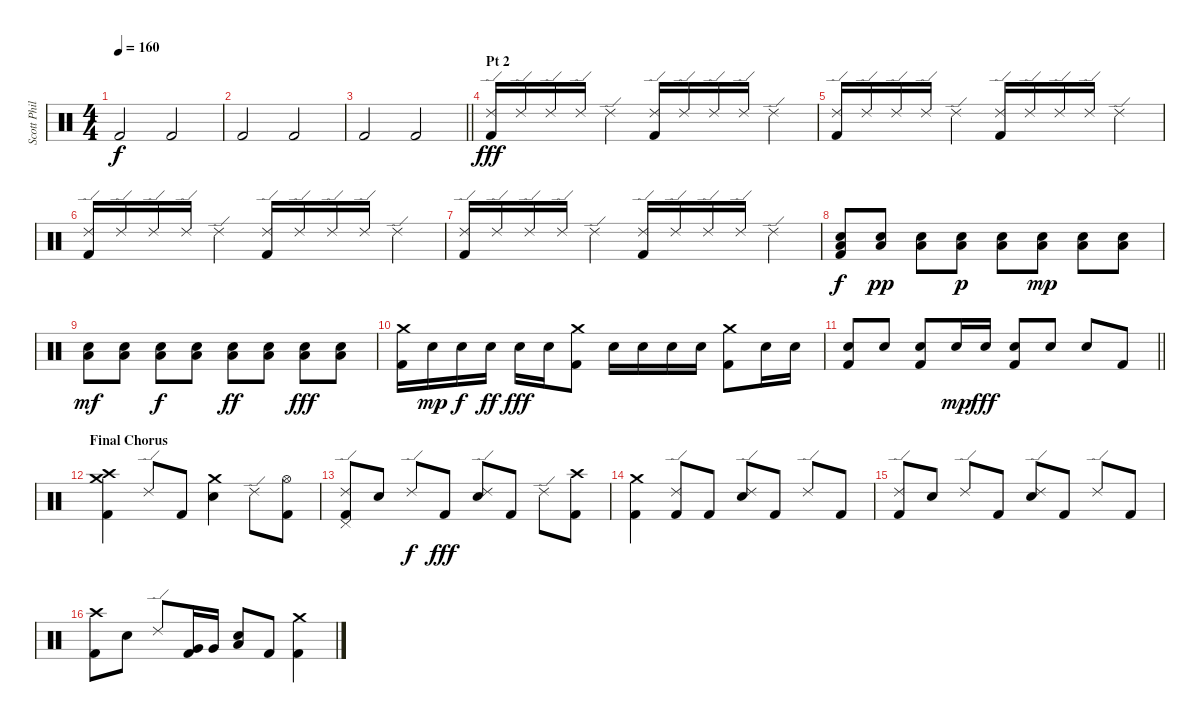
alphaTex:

\track ("Scott Phillips [Drums]" "Scott Phil") {instrument percussion}
\staff {score}
\articulation defaults
\ts (4 4)
\tempo 160
\clef neutral
\ks c "Kick (hit) 2".2{dy f} "Kick (hit) 2".2
|
"Kick (hit) 2".2 "Kick (hit) 2".2 |
\barLineRight lightlight "Kick (hit) 2".2 "Kick (hit) 2".2
|
\section ("" "Pt 2")
("Ride (edge) 2" "Kick (hit) 2").16{dy fff} "Ride (edge) 2".16 "Ride (edge) 2".16 "Ride (edge) 2".16 "Ride (edge) 2".4 ("Ride (edge) 2" "Kick (hit) 2").16 "Ride (edge) 2".16 "Ride (edge) 2".16 "Ride (edge) 2".16 "Ride (edge) 2".4 |
("Ride (edge) 2" "Kick (hit) 2").16 "Ride (edge) 2".16 "Ride (edge) 2".16 "Ride (edge) 2".16 "Ride (edge) 2".4 ("Ride (edge) 2" "Kick (hit) 2").16 "Ride (edge) 2".16 "Ride (edge) 2".16 "Ride (edge) 2".16 "Ride (edge) 2".4 |
("Ride (edge) 2" "Kick (hit) 2").16 "Ride (edge) 2".16 "Ride (edge) 2".16 "Ride (edge) 2".16 "Ride (edge) 2".4 ("Ride (edge) 2" "Kick (hit) 2").16 "Ride (edge) 2".16 "Ride (edge) 2".16 "Ride (edge) 2".16 "Ride (edge) 2".4 |
("Ride (edge) 2" "Kick (hit) 2").16 "Ride (edge) 2".16 "Ride (edge) 2".16 "Ride (edge) 2".16 "Ride (edge) 2".4 ("Ride (edge) 2" "Kick (hit) 2").16 "Ride (edge) 2".16 "Ride (edge) 2".16 "Ride (edge) 2".16 "Ride (edge) 2".4 |
("Low Floor Tom (hit)" "Electric Snare (hit)" "Kick (hit) 2").8{dy f} ("Low Floor Tom (hit)" "Electric Snare (hit)").8{dy pp} ("Low Floor Tom (hit)" "Electric Snare (hit)").8 ("Low Floor Tom (hit)" "Electric Snare (hit)").8{dy p} ("Low Floor Tom (hit)" "Electric Snare (hit)").8 ("Low Floor Tom (hit)" "Electric Snare (hit)").8{dy mp} ("Low Floor Tom (hit)" "Electric Snare (hit)").8 ("Low Floor Tom (hit)" "Electric Snare (hit)").8 |
("Low Floor Tom (hit)" "Electric Snare (hit)").8{dy mf} ("Low Floor Tom (hit)" "Electric Snare (hit)").8 ("Low Floor Tom (hit)" "Electric Snare (hit)").8{dy f} ("Low Floor Tom (hit)" "Electric Snare (hit)").8 ("Low Floor Tom (hit)" "Electric Snare (hit)").8{dy ff} ("Low Floor Tom (hit)" "Electric Snare (hit)").8 ("Low Floor Tom (hit)" "Electric Snare (hit)").8{dy fff} ("Low Floor Tom (hit)" "Electric Snare (hit)").8 |
("Crash medium (hit)" "Kick (hit) 2").16 "Electric Snare (hit)".16{dy mp} "Electric Snare (hit)".16{dy f} "Electric Snare (hit)".16{dy ff} "Electric Snare (hit)".16{dy fff} "Electric Snare (hit)".16 ("Crash medium (hit)" "Kick (hit) 2").8 "Electric Snare (hit)".16 "Electric Snare (hit)".16 "Electric Snare (hit)".16 "Electric Snare (hit)".16 ("Crash medium (hit)" "Kick (hit) 2").8 "Electric Snare (hit)".16 "Electric Snare (hit)".16 |
\barLineRight lightlight
("Electric Snare (hit)" "Kick (hit) 2").8 "Electric Snare (hit)".8 ("Electric Snare (hit)" "Kick (hit) 2").8 "Electric Snare (hit)".16{dy mp} "Electric Snare (hit)".16{dy fff} ("Electric Snare (hit)" "Kick (hit) 2").8 "Electric Snare (hit)".8 "Electric Snare (hit)".8 "Kick (hit) 2".8 |
\section ("" "Final Chorus")
("Crash high (hit)" "Crash medium (hit)" "Kick (hit) 2").4 "Ride (edge) 2".8 "Kick (hit) 2".8 ("Crash medium (hit)" "Electric Snare (hit)").4 "Ride (edge) 2".8 ("Hi-Hat (open)" "Kick (hit) 2").8 |
("Ride (edge) 2" "Pedal Hi-Hat (hit)" "Kick (hit) 2").8 "Electric Snare (hit)".8 "Ride (edge) 2".8{dy f} "Kick (hit) 2".8{dy fff} ("Ride (edge) 2" "Electric Snare (hit)").8 "Kick (hit) 2".8 "Ride (edge) 2".8 ("Crash high (hit)" "Kick (hit) 2").8 |
("Crash medium (hit)" "Kick (hit) 2").4 ("Ride (edge) 2" "Kick (hit) 2").8 "Kick (hit) 2".8 ("Ride (edge) 2" "Electric Snare (hit)").8 "Kick (hit) 2".8 "Ride (edge) 2".8 "Kick (hit) 2".8 |
("Ride (edge) 2" "Kick (hit) 2").8 "Electric Snare (hit)".8 "Ride (edge) 2".8 "Kick (hit) 2".8 ("Ride (edge) 2" "Electric Snare (hit)").8 "Kick (hit) 2".8 "Ride (edge) 2".8 "Kick (hit) 2".8 |
("Crash high (hit)" "Kick (hit) 2").8 "Electric Snare (hit)".8 "Ride (edge) 2".8 ("Very Low Tom (hit)" "Kick (hit) 2").16 "Very Low Tom (hit)".16 ("Low Floor Tom (hit)" "Electric Snare (hit)").8 "Kick (hit) 2".8 ("Crash medium (hit)" "Kick (hit) 2").4
